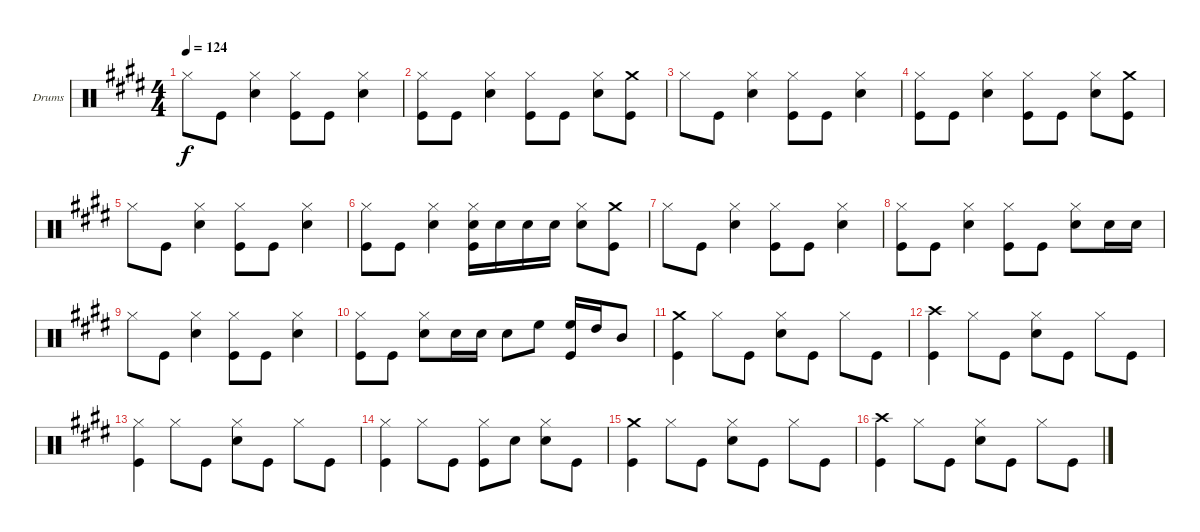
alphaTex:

\defaultSystemsLayout 4
\bracketExtendMode groupsimilarinstruments
\firstSystemTrackNameOrientation horizontal
\otherSystemsTrackNameOrientation horizontal
\track ("Drumkit" "Drums") {instrument percussion}
\staff {score}
\articulation defaults
\ts (4 4)
\tempo 124
\clef neutral
\ks e "Hi-Hat (closed)".8{dy f} "Kick (hit)".8
("Hi-Hat (closed)" "Snare (hit) 2").4 ("Hi-Hat (closed)" "Kick (hit)").8 "Kick (hit)".8 ("Hi-Hat (closed)" "Snare (hit) 2").4 |
("Hi-Hat (closed)" "Kick (hit)").8 "Kick (hit)".8 ("Hi-Hat (closed)" "Snare (hit) 2").4 ("Hi-Hat (closed)" "Kick (hit)").8 "Kick (hit)".8 ("Hi-Hat (closed)" "Snare (hit) 2").8 ("Crash medium (hit)" "Kick (hit)").8 |
"Hi-Hat (closed)".8 "Kick (hit)".8 ("Hi-Hat (closed)" "Snare (hit) 2").4 ("Hi-Hat (closed)" "Kick (hit)").8 "Kick (hit)".8 ("Hi-Hat (closed)" "Snare (hit) 2").4 |
("Hi-Hat (closed)" "Kick (hit)").8 "Kick (hit)".8 ("Hi-Hat (closed)" "Snare (hit) 2").4 ("Hi-Hat (closed)" "Kick (hit)").8 "Kick (hit)".8 ("Hi-Hat (closed)" "Snare (hit) 2").8 ("Crash medium (hit)" "Kick (hit)").8 |
"Hi-Hat (closed)".8 "Kick (hit)".8 ("Hi-Hat (closed)" "Snare (hit) 2").4 ("Hi-Hat (closed)" "Kick (hit)").8 "Kick (hit)".8 ("Hi-Hat (closed)" "Snare (hit) 2").4 |
("Hi-Hat (closed)" "Kick (hit)").8 "Kick (hit)".8 ("Hi-Hat (closed)" "Snare (hit) 2").4 ("Hi-Hat (closed)" "Snare (hit) 2" "Kick (hit)").16 "Snare (hit) 2".16 "Snare (hit) 2".16 "Snare (hit) 2".16 ("Hi-Hat (closed)" "Snare (hit) 2").8 ("Crash medium (hit)" "Kick (hit)").8 |
"Hi-Hat (closed)".8 "Kick (hit)".8 ("Hi-Hat (closed)" "Snare (hit) 2").4 ("Hi-Hat (closed)" "Kick (hit)").8 "Kick (hit)".8 ("Hi-Hat (closed)" "Snare (hit) 2").4 |
("Hi-Hat (closed)" "Kick (hit)").8 "Kick (hit)".8 ("Hi-Hat (closed)" "Snare (hit) 2").4 ("Hi-Hat (closed)" "Kick (hit)").8 "Kick (hit)".8 ("Hi-Hat (closed)" "Snare (hit) 2").8 "Snare (hit) 2".16 "Snare (hit) 2".16 |
"Hi-Hat (closed)".8 "Kick (hit)".8 ("Hi-Hat (closed)" "Snare (hit) 2").4 ("Hi-Hat (closed)" "Kick (hit)").8 "Kick (hit)".8 ("Hi-Hat (closed)" "Snare (hit) 2").4 |
("Hi-Hat (closed)" "Kick (hit)").8 "Kick (hit)".8 ("Hi-Hat (closed)" "Snare (hit) 2").8 "Snare (hit) 2".16 "Snare (hit) 2".16 "Snare (hit) 2".8 "High Floor Tom (hit)".8 ("High Floor Tom (hit)" "Kick (hit)").16 "High Tom (hit)".16 "Mid Tom (hit)".8 |
("Crash medium (hit)" "Kick (hit)").4 "Hi-Hat (closed)".8 "Kick (hit)".8 ("Hi-Hat (closed)" "Snare (hit) 2").8 "Kick (hit)".8 "Hi-Hat (closed)".8 "Kick (hit)".8 |
("Crash high (hit)" "Kick (hit)").4 "Hi-Hat (closed)".8 "Kick (hit)".8 ("Hi-Hat (closed)" "Snare (hit) 2").8 "Kick (hit)".8 "Hi-Hat (closed)".8 "Kick (hit)".8 |
("Hi-Hat (closed)" "Kick (hit)").4 "Hi-Hat (closed)".8 "Kick (hit)".8 ("Hi-Hat (closed)" "Snare (hit) 2").8 "Kick (hit)".8 "Hi-Hat (closed)".8 "Kick (hit)".8 |
("Hi-Hat (closed)" "Kick (hit)").4 "Hi-Hat (closed)".8 "Kick (hit)".8 ("Hi-Hat (closed)" "Kick (hit)").8 "Snare (hit) 2".8 ("Hi-Hat (closed)" "Snare (hit) 2").8 "Kick (hit)".8 |
("Crash medium (hit)" "Kick (hit)").4 "Hi-Hat (closed)".8 "Kick (hit)".8 ("Hi-Hat (closed)" "Snare (hit) 2").8 "Kick (hit)".8 "Hi-Hat (closed)".8 "Kick (hit)".8 |
("Crash high (hit)" "Kick (hit)").4 "Hi-Hat (closed)".8 "Kick (hit)".8 ("Hi-Hat (closed)" "Snare (hit) 2").8 "Kick (hit)".8 "Hi-Hat (closed)".8 "Kick (hit)".8
